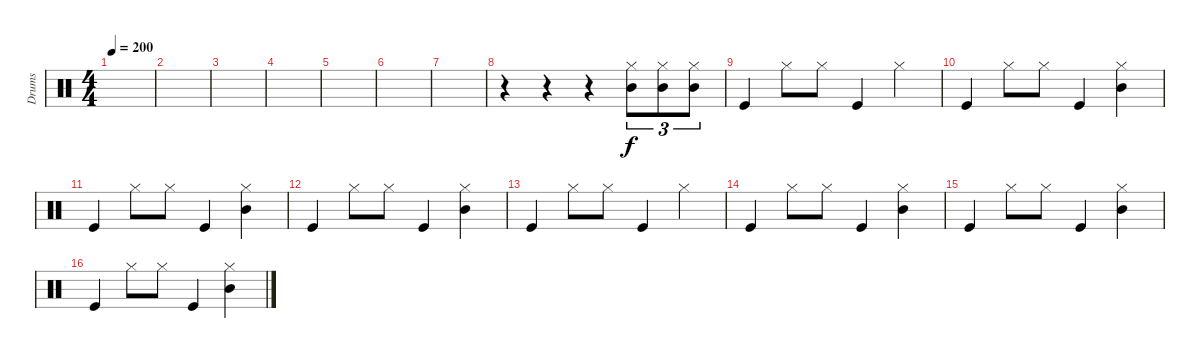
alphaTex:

\track ("Drums" "Drums") {instrument percussion}
\staff {score}
\articulation defaults
\ts (4 4)
\tempo 200
\clef neutral
\ks c
|
|
|
|
|
|
|
r.4 r.4 r.4 ("Mid Tom (hit)" "Hi-Hat (closed)").8{tu (3 2)} ("Mid Tom (hit)" "Hi-Hat (closed)").8{tu (3 2)} ("Mid Tom (hit)" "Hi-Hat (closed)").8{tu (3 2)} |
"Kick (hit)".4 "Hi-Hat (closed)".8 "Hi-Hat (closed)".8 "Kick (hit)".4 "Hi-Hat (closed)".4 |
"Kick (hit)".4 "Hi-Hat (closed)".8 "Hi-Hat (closed)".8 "Kick (hit)".4 ("Mid Tom (hit)" "Hi-Hat (closed)").4 |
"Kick (hit)".4 "Hi-Hat (closed)".8 "Hi-Hat (closed)".8 "Kick (hit)".4 ("Mid Tom (hit)" "Hi-Hat (closed)").4 |
"Kick (hit)".4 "Hi-Hat (closed)".8 "Hi-Hat (closed)".8 "Kick (hit)".4 ("Mid Tom (hit)" "Hi-Hat (closed)").4 |
"Kick (hit)".4 "Hi-Hat (closed)".8 "Hi-Hat (closed)".8 "Kick (hit)".4 "Hi-Hat (closed)".4 |
"Kick (hit)".4 "Hi-Hat (closed)".8 "Hi-Hat (closed)".8 "Kick (hit)".4 ("Mid Tom (hit)" "Hi-Hat (closed)").4 |
"Kick (hit)".4 "Hi-Hat (closed)".8 "Hi-Hat (closed)".8 "Kick (hit)".4 ("Mid Tom (hit)" "Hi-Hat (closed)").4 |
"Kick (hit)".4 "Hi-Hat (closed)".8 "Hi-Hat (closed)".8 "Kick (hit)".4 ("Mid Tom (hit)" "Hi-Hat (closed)").4
